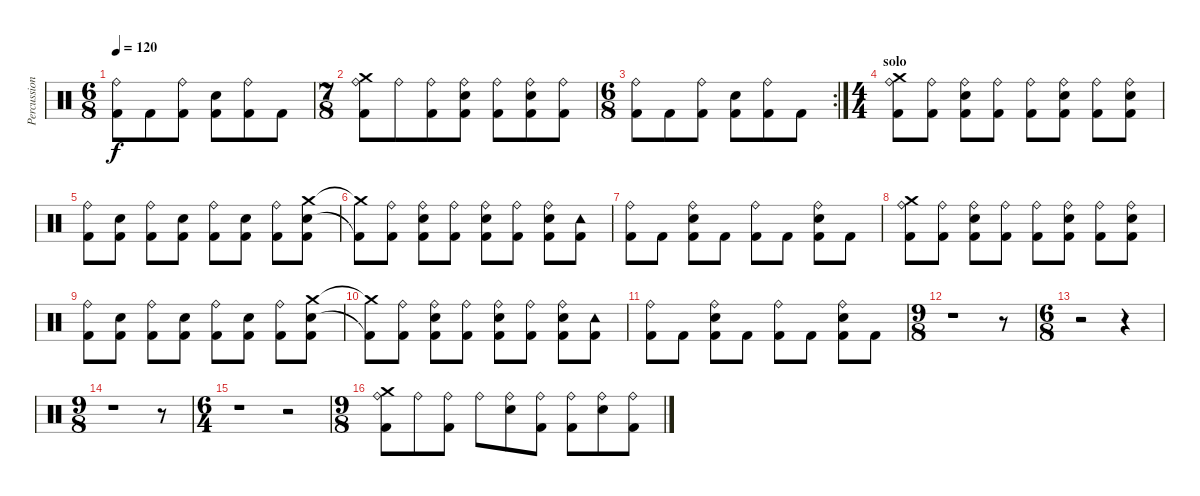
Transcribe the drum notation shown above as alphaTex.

\track ("Percussion" "Percussion") {instrument percussion}
\staff {score}
\articulation defaults
\ts (6 8)
\tempo 120
\clef neutral
\ks c
("Ride (bell)" "Kick (hit) 2").8{dy f} "Kick (hit) 2".8 ("Ride (bell)" "Kick (hit) 2").8 ("Electric Snare (hit)" "Kick (hit) 2").8 ("Ride (bell)" "Kick (hit) 2").8 "Kick (hit) 2".8 |
\ts (7 8)
("Crash medium (hit)" "Ride (bell)" "Kick (hit) 2").8 "Ride (bell)".8 ("Ride (bell)" "Kick (hit) 2").8 ("Ride (bell)" "Electric Snare (hit)" "Kick (hit) 2").8 ("Ride (bell)" "Kick (hit) 2").8 ("Ride (bell)" "Electric Snare (hit)" "Kick (hit) 2").8 ("Ride (bell)" "Kick (hit) 2").8 |
\rc 2
\ts (6 8)
("Ride (bell)" "Kick (hit) 2").8 "Kick (hit) 2".8 ("Ride (bell)" "Kick (hit) 2").8 ("Electric Snare (hit)" "Kick (hit) 2").8 ("Ride (bell)" "Kick (hit) 2").8 "Kick (hit) 2".8 |
\ts (4 4)
\section ("" "solo")
("Crash medium (hit)" "Ride (bell)" "Kick (hit) 2").8 ("Ride (bell)" "Kick (hit) 2").8 ("Ride (bell)" "Electric Snare (hit)" "Kick (hit) 2").8 ("Ride (bell)" "Kick (hit) 2").8 ("Ride (bell)" "Kick (hit) 2").8 ("Ride (bell)" "Electric Snare (hit)" "Kick (hit) 2").8 ("Ride (bell)" "Kick (hit) 2").8 ("Ride (bell)" "Electric Snare (hit)" "Kick (hit) 2").8 |
("Ride (bell)" "Kick (hit) 2").8 ("Electric Snare (hit)" "Kick (hit) 2").8 ("Ride (bell)" "Kick (hit) 2").8 ("Electric Snare (hit)" "Kick (hit) 2").8 ("Ride (bell)" "Kick (hit) 2").8 ("Electric Snare (hit)" "Kick (hit) 2").8 ("Ride (bell)" "Kick (hit) 2").8 ("Crash medium (hit)" "Electric Snare (hit)" "Kick (hit) 2").8 |
("Crash medium (hit)"{t} "Kick (hit) 2"{t}).8 ("Ride (bell)" "Kick (hit) 2").8 ("Ride (bell)" "Electric Snare (hit)" "Kick (hit) 2").8 ("Ride (bell)" "Kick (hit) 2").8 ("Ride (bell)" "Electric Snare (hit)" "Kick (hit) 2").8 ("Ride (bell)" "Kick (hit) 2").8 ("Ride (bell)" "Electric Snare (hit)" "Kick (hit) 2").8 ("Tambourine (hit)" "Kick (hit) 2").8 |
("Ride (bell)" "Kick (hit) 2").8 "Kick (hit) 2".8 ("Ride (bell)" "Electric Snare (hit)" "Kick (hit) 2").8 "Kick (hit) 2".8 ("Ride (bell)" "Kick (hit) 2").8 "Kick (hit) 2".8 ("Ride (bell)" "Electric Snare (hit)" "Kick (hit) 2").8 "Kick (hit) 2".8 |
("Crash medium (hit)" "Ride (bell)" "Kick (hit) 2").8 ("Ride (bell)" "Kick (hit) 2").8 ("Ride (bell)" "Electric Snare (hit)" "Kick (hit) 2").8 ("Ride (bell)" "Kick (hit) 2").8 ("Ride (bell)" "Kick (hit) 2").8 ("Ride (bell)" "Electric Snare (hit)" "Kick (hit) 2").8 ("Ride (bell)" "Kick (hit) 2").8 ("Ride (bell)" "Electric Snare (hit)" "Kick (hit) 2").8 |
("Ride (bell)" "Kick (hit) 2").8 ("Electric Snare (hit)" "Kick (hit) 2").8 ("Ride (bell)" "Kick (hit) 2").8 ("Electric Snare (hit)" "Kick (hit) 2").8 ("Ride (bell)" "Kick (hit) 2").8 ("Electric Snare (hit)" "Kick (hit) 2").8 ("Ride (bell)" "Kick (hit) 2").8 ("Crash medium (hit)" "Electric Snare (hit)" "Kick (hit) 2").8 |
("Crash medium (hit)"{t} "Kick (hit) 2"{t}).8 ("Ride (bell)" "Kick (hit) 2").8 ("Ride (bell)" "Electric Snare (hit)" "Kick (hit) 2").8 ("Ride (bell)" "Kick (hit) 2").8 ("Ride (bell)" "Electric Snare (hit)" "Kick (hit) 2").8 ("Ride (bell)" "Kick (hit) 2").8 ("Ride (bell)" "Electric Snare (hit)" "Kick (hit) 2").8 ("Tambourine (hit)" "Kick (hit) 2").8 |
("Ride (bell)" "Kick (hit) 2").8 "Kick (hit) 2".8 ("Ride (bell)" "Electric Snare (hit)" "Kick (hit) 2").8 "Kick (hit) 2".8 ("Ride (bell)" "Kick (hit) 2").8 "Kick (hit) 2".8 ("Ride (bell)" "Electric Snare (hit)" "Kick (hit) 2").8 "Kick (hit) 2".8 |
\ts (9 8)
r.1 r.8 |
\ts (6 8)
r.2 r.4 |
\ts (9 8)
r.1 r.8 |
\ts (6 4)
r.1 r.2 |
\ts (9 8)
("Crash medium (hit)" "Ride (bell)" "Kick (hit) 2").8 "Ride (bell)".8 ("Ride (bell)" "Kick (hit) 2").8 "Ride (bell)".8 ("Ride (bell)" "Electric Snare (hit)").8 ("Ride (bell)" "Kick (hit) 2").8 ("Ride (bell)" "Kick (hit) 2").8 ("Ride (bell)" "Electric Snare (hit)").8 ("Ride (bell)" "Kick (hit) 2").8
